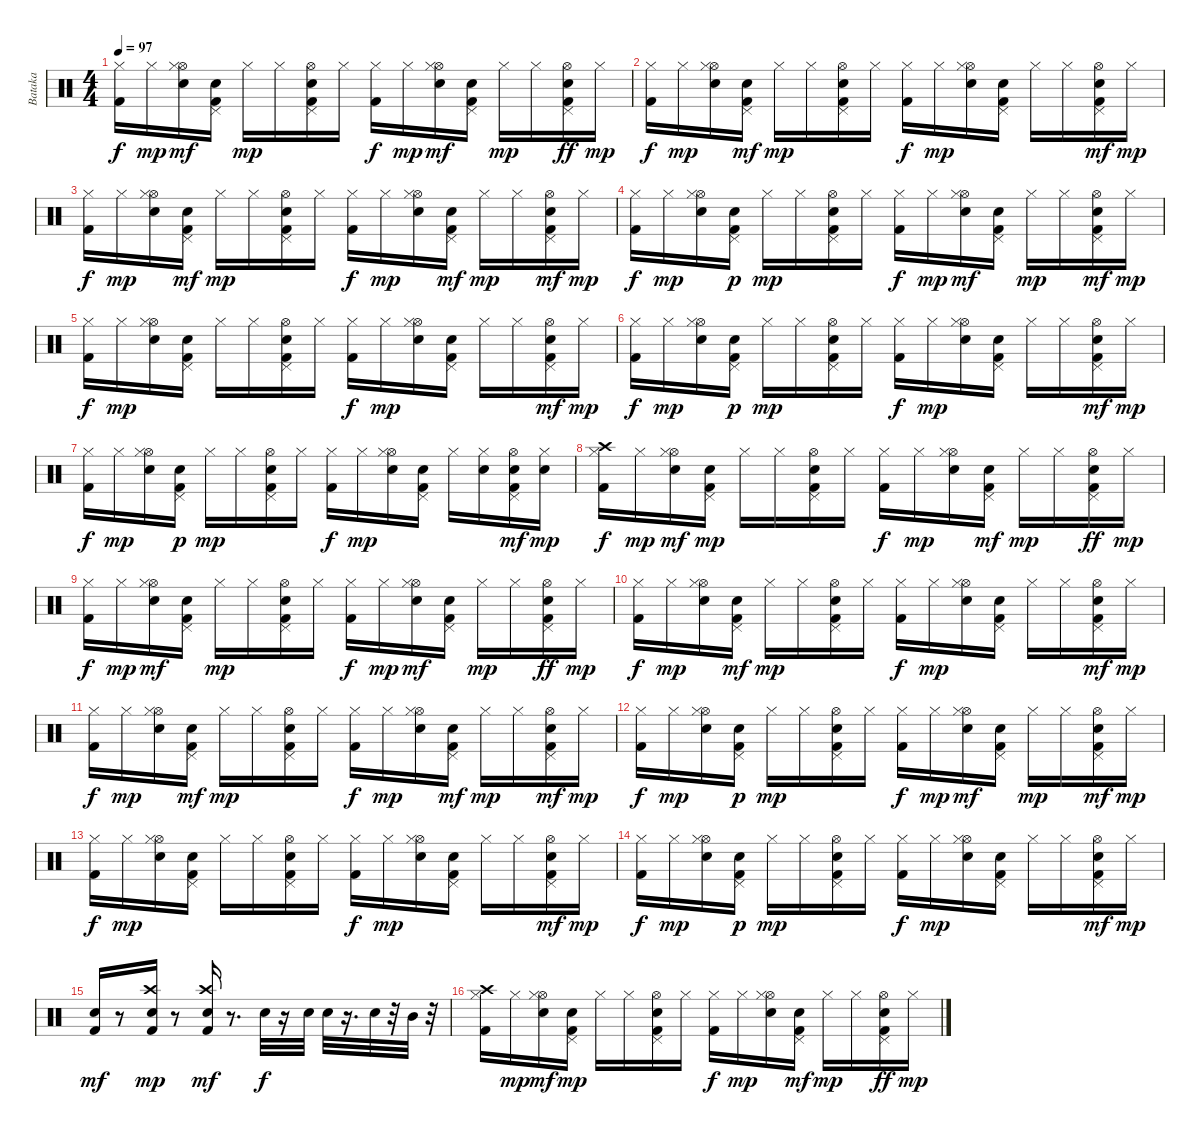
\track ("Bataka" "Bataka") {instrument percussion}
\staff {score}
\articulation defaults
\ts (4 4)
\tempo 97
\clef neutral
\ks c
("Kick (hit) 2" "Hi-Hat (closed)").16{dy f} "Hi-Hat (closed)".16{dy mp} ("Hi-Hat (open)" "Hi-Hat (closed)" "Electric Snare (hit)").16{dy mf} ("Pedal Hi-Hat (hit)" "Kick (hit) 2" "Electric Snare (hit)").16 "Hi-Hat (closed)".16{dy mp} "Hi-Hat (closed)".16 ("Electric Snare (hit)" "Hi-Hat (open)" "Kick (hit) 2" "Pedal Hi-Hat (hit)").16 "Hi-Hat (closed)".16 ("Kick (hit) 2" "Hi-Hat (closed)").16{dy f} "Hi-Hat (closed)".16{dy mp} ("Hi-Hat (open)" "Hi-Hat (closed)" "Electric Snare (hit)").16{dy mf} ("Pedal Hi-Hat (hit)" "Kick (hit) 2" "Electric Snare (hit)").16 "Hi-Hat (closed)".16{dy mp} "Hi-Hat (closed)".16 ("Hi-Hat (open)" "Pedal Hi-Hat (hit)" "Kick (hit) 2" "Electric Snare (hit)").16{dy ff} "Hi-Hat (closed)".16{dy mp} |
("Kick (hit) 2" "Hi-Hat (closed)").16{dy f} "Hi-Hat (closed)".16{dy mp} ("Hi-Hat (open)" "Hi-Hat (closed)" "Electric Snare (hit)").16 ("Pedal Hi-Hat (hit)" "Kick (hit) 2" "Electric Snare (hit)").16{dy mf} "Hi-Hat (closed)".16{dy mp} "Hi-Hat (closed)".16 ("Hi-Hat (open)" "Kick (hit) 2" "Pedal Hi-Hat (hit)" "Electric Snare (hit)").16 "Hi-Hat (closed)".16 ("Kick (hit) 2" "Hi-Hat (closed)").16{dy f} "Hi-Hat (closed)".16{dy mp} ("Hi-Hat (open)" "Hi-Hat (closed)" "Electric Snare (hit)").16 ("Pedal Hi-Hat (hit)" "Kick (hit) 2" "Electric Snare (hit)").16 "Hi-Hat (closed)".16 "Hi-Hat (closed)".16 ("Hi-Hat (open)" "Pedal Hi-Hat (hit)" "Kick (hit) 2" "Electric Snare (hit)").16{dy mf} "Hi-Hat (closed)".16{dy mp} |
("Kick (hit) 2" "Hi-Hat (closed)").16{dy f} "Hi-Hat (closed)".16{dy mp} ("Hi-Hat (open)" "Hi-Hat (closed)" "Electric Snare (hit)").16 ("Pedal Hi-Hat (hit)" "Kick (hit) 2" "Electric Snare (hit)").16{dy mf} "Hi-Hat (closed)".16{dy mp} "Hi-Hat (closed)".16 ("Hi-Hat (open)" "Kick (hit) 2" "Pedal Hi-Hat (hit)" "Electric Snare (hit)").16 "Hi-Hat (closed)".16 ("Kick (hit) 2" "Hi-Hat (closed)").16{dy f} "Hi-Hat (closed)".16{dy mp} ("Electric Snare (hit)" "Hi-Hat (open)" "Hi-Hat (closed)").16 ("Pedal Hi-Hat (hit)" "Kick (hit) 2" "Electric Snare (hit)").16{dy mf} "Hi-Hat (closed)".16{dy mp} "Hi-Hat (closed)".16 ("Hi-Hat (open)" "Pedal Hi-Hat (hit)" "Kick (hit) 2" "Electric Snare (hit)").16{dy mf} "Hi-Hat (closed)".16{dy mp} |
("Kick (hit) 2" "Hi-Hat (closed)").16{dy f} "Hi-Hat (closed)".16{dy mp} ("Electric Snare (hit)" "Hi-Hat (open)" "Hi-Hat (closed)").16 ("Electric Snare (hit)" "Pedal Hi-Hat (hit)" "Kick (hit) 2").16{dy p} "Hi-Hat (closed)".16{dy mp} "Hi-Hat (closed)".16 ("Hi-Hat (open)" "Kick (hit) 2" "Pedal Hi-Hat (hit)" "Electric Snare (hit)").16 "Hi-Hat (closed)".16 ("Kick (hit) 2" "Hi-Hat (closed)").16{dy f} "Hi-Hat (closed)".16{dy mp} ("Hi-Hat (open)" "Hi-Hat (closed)" "Electric Snare (hit)").16{dy mf} ("Pedal Hi-Hat (hit)" "Kick (hit) 2" "Electric Snare (hit)").16 "Hi-Hat (closed)".16{dy mp} "Hi-Hat (closed)".16 ("Hi-Hat (open)" "Pedal Hi-Hat (hit)" "Kick (hit) 2" "Electric Snare (hit)").16{dy mf} "Hi-Hat (closed)".16{dy mp} |
("Kick (hit) 2" "Hi-Hat (closed)").16{dy f} "Hi-Hat (closed)".16{dy mp} ("Hi-Hat (open)" "Hi-Hat (closed)" "Electric Snare (hit)").16 ("Pedal Hi-Hat (hit)" "Kick (hit) 2" "Electric Snare (hit)").16 "Hi-Hat (closed)".16 "Hi-Hat (closed)".16 ("Hi-Hat (open)" "Kick (hit) 2" "Pedal Hi-Hat (hit)" "Electric Snare (hit)").16 "Hi-Hat (closed)".16 ("Kick (hit) 2" "Hi-Hat (closed)").16{dy f} "Hi-Hat (closed)".16{dy mp} ("Electric Snare (hit)" "Hi-Hat (open)" "Hi-Hat (closed)").16 ("Electric Snare (hit)" "Pedal Hi-Hat (hit)" "Kick (hit) 2").16 "Hi-Hat (closed)".16 "Hi-Hat (closed)".16 ("Electric Snare (hit)" "Hi-Hat (open)" "Pedal Hi-Hat (hit)" "Kick (hit) 2").16{dy mf} "Hi-Hat (closed)".16{dy mp} |
("Kick (hit) 2" "Hi-Hat (closed)").16{dy f} "Hi-Hat (closed)".16{dy mp} ("Electric Snare (hit)" "Hi-Hat (open)" "Hi-Hat (closed)").16 ("Electric Snare (hit)" "Pedal Hi-Hat (hit)" "Kick (hit) 2").16{dy p} "Hi-Hat (closed)".16{dy mp} "Hi-Hat (closed)".16 ("Hi-Hat (open)" "Kick (hit) 2" "Pedal Hi-Hat (hit)" "Electric Snare (hit)").16 "Hi-Hat (closed)".16 ("Kick (hit) 2" "Hi-Hat (closed)").16{dy f} "Hi-Hat (closed)".16{dy mp} ("Electric Snare (hit)" "Hi-Hat (open)" "Hi-Hat (closed)").16 ("Electric Snare (hit)" "Pedal Hi-Hat (hit)" "Kick (hit) 2").16 "Hi-Hat (closed)".16 "Hi-Hat (closed)".16 ("Hi-Hat (open)" "Pedal Hi-Hat (hit)" "Kick (hit) 2" "Electric Snare (hit)").16{dy mf} "Hi-Hat (closed)".16{dy mp} |
("Kick (hit) 2" "Hi-Hat (closed)").16{dy f} "Hi-Hat (closed)".16{dy mp} ("Electric Snare (hit)" "Hi-Hat (open)" "Hi-Hat (closed)").16 ("Electric Snare (hit)" "Pedal Hi-Hat (hit)" "Kick (hit) 2").16{dy p} "Hi-Hat (closed)".16{dy mp} "Hi-Hat (closed)".16 ("Electric Snare (hit)" "Hi-Hat (open)" "Kick (hit) 2" "Pedal Hi-Hat (hit)").16 "Hi-Hat (closed)".16 ("Kick (hit) 2" "Hi-Hat (closed)").16{dy f} "Hi-Hat (closed)".16{dy mp} ("Hi-Hat (open)" "Hi-Hat (closed)" "Electric Snare (hit)").16 ("Pedal Hi-Hat (hit)" "Kick (hit) 2" "Electric Snare (hit)").16 "Hi-Hat (closed)".16 ("Electric Snare (hit)" "Hi-Hat (closed)").16 ("Electric Snare (hit)" "Hi-Hat (open)" "Pedal Hi-Hat (hit)" "Kick (hit) 2").16{dy mf} ("Electric Snare (hit)" "Hi-Hat (closed)").16{dy mp} |
("Crash high (hit)" "Kick (hit) 2" "Hi-Hat (closed)").16{dy f} "Hi-Hat (closed)".16{dy mp} ("Hi-Hat (open)" "Hi-Hat (closed)" "Electric Snare (hit)").16{dy mf} ("Pedal Hi-Hat (hit)" "Kick (hit) 2" "Electric Snare (hit)").16{dy mp} "Hi-Hat (closed)".16 "Hi-Hat (closed)".16 ("Electric Snare (hit)" "Hi-Hat (open)" "Kick (hit) 2" "Pedal Hi-Hat (hit)").16 "Hi-Hat (closed)".16 ("Kick (hit) 2" "Hi-Hat (closed)").16{dy f} "Hi-Hat (closed)".16{dy mp} ("Hi-Hat (open)" "Hi-Hat (closed)" "Electric Snare (hit)").16 ("Pedal Hi-Hat (hit)" "Kick (hit) 2" "Electric Snare (hit)").16{dy mf} "Hi-Hat (closed)".16{dy mp} "Hi-Hat (closed)".16 ("Hi-Hat (open)" "Pedal Hi-Hat (hit)" "Kick (hit) 2" "Electric Snare (hit)").16{dy ff} "Hi-Hat (closed)".16{dy mp} |
("Kick (hit) 2" "Hi-Hat (closed)").16{dy f} "Hi-Hat (closed)".16{dy mp} ("Hi-Hat (open)" "Hi-Hat (closed)" "Electric Snare (hit)").16{dy mf} ("Pedal Hi-Hat (hit)" "Kick (hit) 2" "Electric Snare (hit)").16 "Hi-Hat (closed)".16{dy mp} "Hi-Hat (closed)".16 ("Electric Snare (hit)" "Hi-Hat (open)" "Kick (hit) 2" "Pedal Hi-Hat (hit)").16 "Hi-Hat (closed)".16 ("Kick (hit) 2" "Hi-Hat (closed)").16{dy f} "Hi-Hat (closed)".16{dy mp} ("Hi-Hat (open)" "Hi-Hat (closed)" "Electric Snare (hit)").16{dy mf} ("Pedal Hi-Hat (hit)" "Kick (hit) 2" "Electric Snare (hit)").16 "Hi-Hat (closed)".16{dy mp} "Hi-Hat (closed)".16 ("Hi-Hat (open)" "Pedal Hi-Hat (hit)" "Kick (hit) 2" "Electric Snare (hit)").16{dy ff} "Hi-Hat (closed)".16{dy mp} |
("Kick (hit) 2" "Hi-Hat (closed)").16{dy f} "Hi-Hat (closed)".16{dy mp} ("Hi-Hat (open)" "Hi-Hat (closed)" "Electric Snare (hit)").16 ("Pedal Hi-Hat (hit)" "Kick (hit) 2" "Electric Snare (hit)").16{dy mf} "Hi-Hat (closed)".16{dy mp} "Hi-Hat (closed)".16 ("Hi-Hat (open)" "Kick (hit) 2" "Pedal Hi-Hat (hit)" "Electric Snare (hit)").16 "Hi-Hat (closed)".16 ("Kick (hit) 2" "Hi-Hat (closed)").16{dy f} "Hi-Hat (closed)".16{dy mp} ("Hi-Hat (open)" "Hi-Hat (closed)" "Electric Snare (hit)").16 ("Pedal Hi-Hat (hit)" "Kick (hit) 2" "Electric Snare (hit)").16 "Hi-Hat (closed)".16 "Hi-Hat (closed)".16 ("Hi-Hat (open)" "Pedal Hi-Hat (hit)" "Kick (hit) 2" "Electric Snare (hit)").16{dy mf} "Hi-Hat (closed)".16{dy mp} |
("Kick (hit) 2" "Hi-Hat (closed)").16{dy f} "Hi-Hat (closed)".16{dy mp} ("Hi-Hat (open)" "Hi-Hat (closed)" "Electric Snare (hit)").16 ("Pedal Hi-Hat (hit)" "Kick (hit) 2" "Electric Snare (hit)").16{dy mf} "Hi-Hat (closed)".16{dy mp} "Hi-Hat (closed)".16 ("Hi-Hat (open)" "Kick (hit) 2" "Pedal Hi-Hat (hit)" "Electric Snare (hit)").16 "Hi-Hat (closed)".16 ("Kick (hit) 2" "Hi-Hat (closed)").16{dy f} "Hi-Hat (closed)".16{dy mp} ("Electric Snare (hit)" "Hi-Hat (open)" "Hi-Hat (closed)").16 ("Pedal Hi-Hat (hit)" "Kick (hit) 2" "Electric Snare (hit)").16{dy mf} "Hi-Hat (closed)".16{dy mp} "Hi-Hat (closed)".16 ("Hi-Hat (open)" "Pedal Hi-Hat (hit)" "Kick (hit) 2" "Electric Snare (hit)").16{dy mf} "Hi-Hat (closed)".16{dy mp} |
("Kick (hit) 2" "Hi-Hat (closed)").16{dy f} "Hi-Hat (closed)".16{dy mp} ("Electric Snare (hit)" "Hi-Hat (open)" "Hi-Hat (closed)").16 ("Electric Snare (hit)" "Pedal Hi-Hat (hit)" "Kick (hit) 2").16{dy p} "Hi-Hat (closed)".16{dy mp} "Hi-Hat (closed)".16 ("Hi-Hat (open)" "Kick (hit) 2" "Pedal Hi-Hat (hit)" "Electric Snare (hit)").16 "Hi-Hat (closed)".16 ("Kick (hit) 2" "Hi-Hat (closed)").16{dy f} "Hi-Hat (closed)".16{dy mp} ("Hi-Hat (open)" "Hi-Hat (closed)" "Electric Snare (hit)").16{dy mf} ("Pedal Hi-Hat (hit)" "Kick (hit) 2" "Electric Snare (hit)").16 "Hi-Hat (closed)".16{dy mp} "Hi-Hat (closed)".16 ("Hi-Hat (open)" "Pedal Hi-Hat (hit)" "Kick (hit) 2" "Electric Snare (hit)").16{dy mf} "Hi-Hat (closed)".16{dy mp} |
("Kick (hit) 2" "Hi-Hat (closed)").16{dy f} "Hi-Hat (closed)".16{dy mp} ("Hi-Hat (open)" "Hi-Hat (closed)" "Electric Snare (hit)").16 ("Pedal Hi-Hat (hit)" "Kick (hit) 2" "Electric Snare (hit)").16 "Hi-Hat (closed)".16 "Hi-Hat (closed)".16 ("Hi-Hat (open)" "Kick (hit) 2" "Pedal Hi-Hat (hit)" "Electric Snare (hit)").16 "Hi-Hat (closed)".16 ("Kick (hit) 2" "Hi-Hat (closed)").16{dy f} "Hi-Hat (closed)".16{dy mp} ("Electric Snare (hit)" "Hi-Hat (open)" "Hi-Hat (closed)").16 ("Electric Snare (hit)" "Pedal Hi-Hat (hit)" "Kick (hit) 2").16 "Hi-Hat (closed)".16 "Hi-Hat (closed)".16 ("Electric Snare (hit)" "Hi-Hat (open)" "Pedal Hi-Hat (hit)" "Kick (hit) 2").16{dy mf} "Hi-Hat (closed)".16{dy mp} |
("Kick (hit) 2" "Hi-Hat (closed)").16{dy f} "Hi-Hat (closed)".16{dy mp} ("Electric Snare (hit)" "Hi-Hat (open)" "Hi-Hat (closed)").16 ("Electric Snare (hit)" "Pedal Hi-Hat (hit)" "Kick (hit) 2").16{dy p} "Hi-Hat (closed)".16{dy mp} "Hi-Hat (closed)".16 ("Hi-Hat (open)" "Kick (hit) 2" "Pedal Hi-Hat (hit)" "Electric Snare (hit)").16 "Hi-Hat (closed)".16 ("Kick (hit) 2" "Hi-Hat (closed)").16{dy f} "Hi-Hat (closed)".16{dy mp} ("Electric Snare (hit)" "Hi-Hat (open)" "Hi-Hat (closed)").16 ("Electric Snare (hit)" "Pedal Hi-Hat (hit)" "Kick (hit) 2").16 "Hi-Hat (closed)".16 "Hi-Hat (closed)".16 ("Hi-Hat (open)" "Pedal Hi-Hat (hit)" "Kick (hit) 2" "Electric Snare (hit)").16{dy mf} "Hi-Hat (closed)".16{dy mp} |
("Kick (hit) 2" "Snare (hit) 2").16{dy mf} r.8 ("Kick (hit) 2" "Snare (hit) 2" "Crash high (hit)").16{dy mp} r.8 ("Crash high (hit)" "Kick (hit) 2" "Snare (hit) 2").16{dy mf} r.8{d} "Snare (hit) 2".32{dy f} r.16 "Snare (hit) 2".32 "Snare (hit) 2".32 r.16{d} "Snare (hit) 2".32 r.32 "Mid Tom (hit)".32 r.32 |
("Crash high (hit)" "Kick (hit) 2" "Hi-Hat (closed)").16 "Hi-Hat (closed)".16{dy mp} ("Hi-Hat (open)" "Hi-Hat (closed)" "Electric Snare (hit)").16{dy mf} ("Pedal Hi-Hat (hit)" "Kick (hit) 2" "Electric Snare (hit)").16{dy mp} "Hi-Hat (closed)".16 "Hi-Hat (closed)".16 ("Electric Snare (hit)" "Hi-Hat (open)" "Kick (hit) 2" "Pedal Hi-Hat (hit)").16 "Hi-Hat (closed)".16 ("Kick (hit) 2" "Hi-Hat (closed)").16{dy f} "Hi-Hat (closed)".16{dy mp} ("Hi-Hat (open)" "Hi-Hat (closed)" "Electric Snare (hit)").16 ("Pedal Hi-Hat (hit)" "Kick (hit) 2" "Electric Snare (hit)").16{dy mf} "Hi-Hat (closed)".16{dy mp} "Hi-Hat (closed)".16 ("Hi-Hat (open)" "Pedal Hi-Hat (hit)" "Kick (hit) 2" "Electric Snare (hit)").16{dy ff} "Hi-Hat (closed)".16{dy mp}
